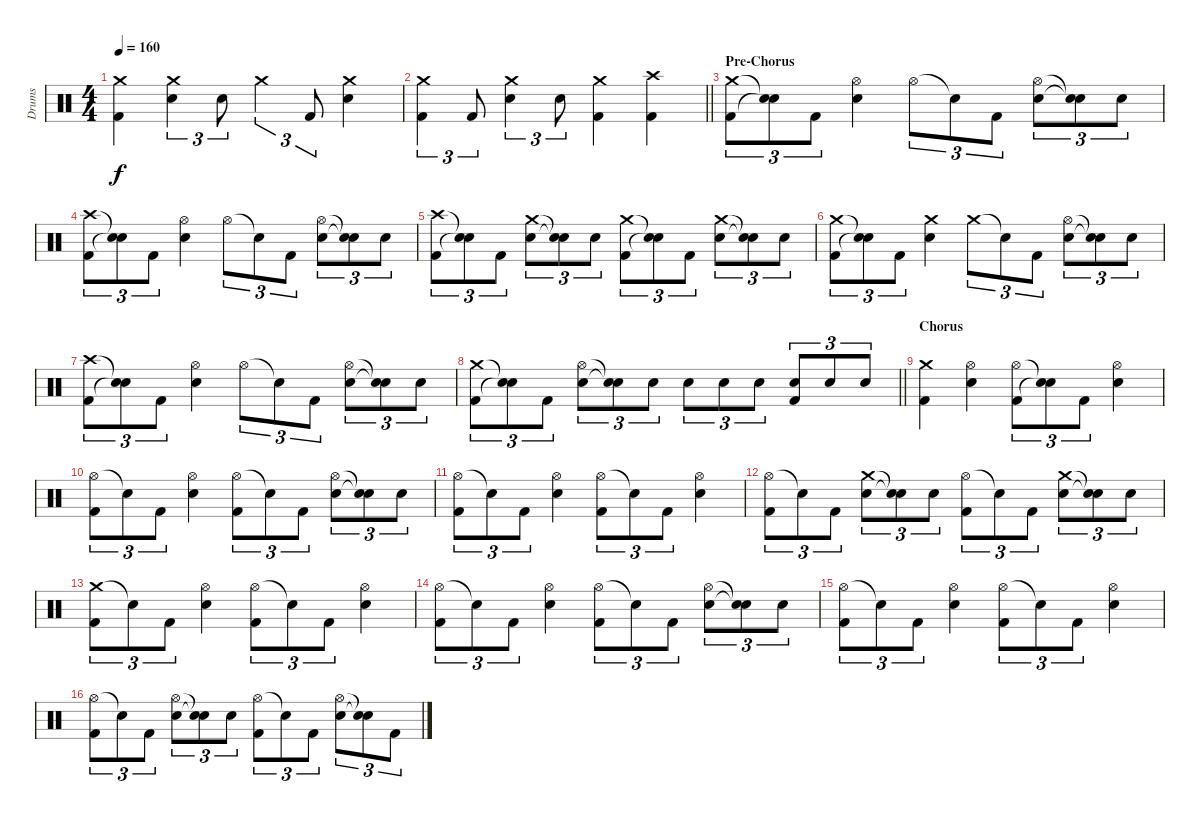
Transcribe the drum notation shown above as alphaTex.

\track ("Drums" "Drums") {instrument percussion}
\staff {score}
\articulation defaults
\ts (4 4)
\tempo 160
\clef neutral
\ks c
("Crash medium (hit)" "Kick (hit) 2").4{dy f} ("Crash medium (hit)" "Electric Snare (hit)").4{tu (3 2)} "Electric Snare (hit)".8{tu (3 2)} "Crash medium (hit)".4{tu (3 2)} "Kick (hit) 2".8{tu (3 2)} ("Crash medium (hit)" "Electric Snare (hit)").4 |
\barLineRight lightlight
("Crash medium (hit)" "Kick (hit) 2").4{tu (3 2)} "Kick (hit) 2".8{tu (3 2)} ("Crash medium (hit)" "Electric Snare (hit)").4{tu (3 2)} "Electric Snare (hit)".8{tu (3 2)} ("Crash medium (hit)" "Kick (hit) 2").4 ("Crash high (hit)" "Kick (hit) 2").4 |
\section ("" "Pre-Chorus")
("Crash medium (hit)" "Kick (hit) 2").8{tu (3 2)} ("Snare (hit)"{t} "Snare (hit)"{t}).8{tu (3 2)} "Kick (hit) 2".8{tu (3 2)} ("Hi-Hat (open)" "Electric Snare (hit)").4 "Hi-Hat (open)".8{tu (3 2)} "Snare (hit)"{t}.8{tu (3 2)} "Kick (hit) 2".8{tu (3 2)} ("Hi-Hat (open)" "Electric Snare (hit)").8{tu (3 2)} ("Snare (hit)"{t} "Snare (hit)"{t}).8{tu (3 2)} "Electric Snare (hit)".8{tu (3 2)} |
("Crash high (hit)" "Kick (hit) 2").8{tu (3 2)} ("Snare (hit)"{t} "Snare (hit)"{t}).8{tu (3 2)} "Kick (hit) 2".8{tu (3 2)} ("Hi-Hat (open)" "Electric Snare (hit)").4 "Hi-Hat (open)".8{tu (3 2)} "Snare (hit)"{t}.8{tu (3 2)} "Kick (hit) 2".8{tu (3 2)} ("Hi-Hat (open)" "Electric Snare (hit)").8{tu (3 2)} ("Snare (hit)"{t} "Snare (hit)"{t}).8{tu (3 2)} "Electric Snare (hit)".8{tu (3 2)} |
("Crash high (hit)" "Kick (hit) 2").8{tu (3 2)} ("Snare (hit)"{t} "Snare (hit)"{t}).8{tu (3 2)} "Kick (hit) 2".8{tu (3 2)} ("Crash medium (hit)" "Electric Snare (hit)").8{tu (3 2)} ("Snare (hit)"{t} "Snare (hit)"{t}).8{tu (3 2)} "Electric Snare (hit)".8{tu (3 2)} ("Crash medium (hit)" "Kick (hit) 2").8{tu (3 2)} ("Snare (hit)"{t} "Snare (hit)"{t}).8{tu (3 2)} "Kick (hit) 2".8{tu (3 2)} ("Crash medium (hit)" "Electric Snare (hit)").8{tu (3 2)} ("Snare (hit)"{t} "Snare (hit)"{t}).8{tu (3 2)} "Electric Snare (hit)".8{tu (3 2)} |
("Crash medium (hit)" "Kick (hit) 2").8{tu (3 2)} ("Snare (hit)"{t} "Snare (hit)"{t}).8{tu (3 2)} "Kick (hit) 2".8{tu (3 2)} ("Crash medium (hit)" "Electric Snare (hit)").4 "Crash medium (hit)".8{tu (3 2)} "Snare (hit)"{t}.8{tu (3 2)} "Kick (hit) 2".8{tu (3 2)} ("Hi-Hat (open)" "Electric Snare (hit)").8{tu (3 2)} ("Snare (hit)"{t} "Snare (hit)"{t}).8{tu (3 2)} "Electric Snare (hit)".8{tu (3 2)} |
("Crash high (hit)" "Kick (hit) 2").8{tu (3 2)} ("Snare (hit)"{t} "Snare (hit)"{t}).8{tu (3 2)} "Kick (hit) 2".8{tu (3 2)} ("Hi-Hat (open)" "Electric Snare (hit)").4 "Hi-Hat (open)".8{tu (3 2)} "Snare (hit)"{t}.8{tu (3 2)} "Kick (hit) 2".8{tu (3 2)} ("Hi-Hat (open)" "Electric Snare (hit)").8{tu (3 2)} ("Snare (hit)"{t} "Snare (hit)"{t}).8{tu (3 2)} "Electric Snare (hit)".8{tu (3 2)} |
\barLineRight lightlight
("Crash medium (hit)" "Kick (hit) 2").8{tu (3 2)} ("Snare (hit)"{t} "Snare (hit)"{t}).8{tu (3 2)} "Kick (hit) 2".8{tu (3 2)} ("Hi-Hat (open)" "Electric Snare (hit)").8{tu (3 2)} ("Snare (hit)"{t} "Snare (hit)"{t}).8{tu (3 2)} "Electric Snare (hit)".8{tu (3 2)} "Electric Snare (hit)".8{tu (3 2)} "Electric Snare (hit)".8{tu (3 2)} "Electric Snare (hit)".8{tu (3 2)} ("Electric Snare (hit)" "Kick (hit) 2").8{tu (3 2)} "Electric Snare (hit)".8{tu (3 2)} "Electric Snare (hit)".8{tu (3 2)} |
\section ("" "Chorus")
("Crash medium (hit)" "Kick (hit) 2").4 ("Hi-Hat (open)" "Electric Snare (hit)").4 ("Hi-Hat (open)" "Kick (hit) 2").8{tu (3 2)} ("Snare (hit)"{t} "Snare (hit)"{t}).8{tu (3 2)} "Kick (hit) 2".8{tu (3 2)} ("Hi-Hat (open)" "Electric Snare (hit)").4 |
("Hi-Hat (open)" "Kick (hit) 2").8{tu (3 2)} "Snare (hit)"{t}.8{tu (3 2)} "Kick (hit) 2".8{tu (3 2)} ("Hi-Hat (open)" "Electric Snare (hit)").4 ("Hi-Hat (open)" "Kick (hit) 2").8{tu (3 2)} "Snare (hit)"{t}.8{tu (3 2)} "Kick (hit) 2".8{tu (3 2)} ("Hi-Hat (open)" "Electric Snare (hit)").8{tu (3 2)} ("Snare (hit)"{t} "Snare (hit)"{t}).8{tu (3 2)} "Electric Snare (hit)".8{tu (3 2)} |
("Hi-Hat (open)" "Kick (hit) 2").8{tu (3 2)} "Snare (hit)"{t}.8{tu (3 2)} "Kick (hit) 2".8{tu (3 2)} ("Hi-Hat (open)" "Electric Snare (hit)").4 ("Hi-Hat (open)" "Kick (hit) 2").8{tu (3 2)} "Snare (hit)"{t}.8{tu (3 2)} "Kick (hit) 2".8{tu (3 2)} ("Hi-Hat (open)" "Electric Snare (hit)").4 |
("Hi-Hat (open)" "Kick (hit) 2").8{tu (3 2)} "Snare (hit)"{t}.8{tu (3 2)} "Kick (hit) 2".8{tu (3 2)} ("Crash medium (hit)" "Electric Snare (hit)").8{tu (3 2)} ("Snare (hit)"{t} "Snare (hit)"{t}).8{tu (3 2)} "Electric Snare (hit)".8{tu (3 2)} ("Hi-Hat (open)" "Kick (hit) 2").8{tu (3 2)} "Snare (hit)"{t}.8{tu (3 2)} "Kick (hit) 2".8{tu (3 2)} ("Crash medium (hit)" "Electric Snare (hit)").8{tu (3 2)} ("Snare (hit)"{t} "Snare (hit)"{t}).8{tu (3 2)} "Electric Snare (hit)".8{tu (3 2)} |
("Crash medium (hit)" "Kick (hit) 2").8{tu (3 2)} "Snare (hit)"{t}.8{tu (3 2)} "Kick (hit) 2".8{tu (3 2)} ("Hi-Hat (open)" "Electric Snare (hit)").4 ("Hi-Hat (open)" "Kick (hit) 2").8{tu (3 2)} "Snare (hit)"{t}.8{tu (3 2)} "Kick (hit) 2".8{tu (3 2)} ("Hi-Hat (open)" "Electric Snare (hit)").4 |
("Hi-Hat (open)" "Kick (hit) 2").8{tu (3 2)} "Snare (hit)"{t}.8{tu (3 2)} "Kick (hit) 2".8{tu (3 2)} ("Hi-Hat (open)" "Electric Snare (hit)").4 ("Hi-Hat (open)" "Kick (hit) 2").8{tu (3 2)} "Snare (hit)"{t}.8{tu (3 2)} "Kick (hit) 2".8{tu (3 2)} ("Hi-Hat (open)" "Electric Snare (hit)").8{tu (3 2)} ("Snare (hit)"{t} "Snare (hit)"{t}).8{tu (3 2)} "Electric Snare (hit)".8{tu (3 2)} |
("Hi-Hat (open)" "Kick (hit) 2").8{tu (3 2)} "Snare (hit)"{t}.8{tu (3 2)} "Kick (hit) 2".8{tu (3 2)} ("Hi-Hat (open)" "Electric Snare (hit)").4 ("Hi-Hat (open)" "Kick (hit) 2").8{tu (3 2)} "Snare (hit)"{t}.8{tu (3 2)} "Kick (hit) 2".8{tu (3 2)} ("Hi-Hat (open)" "Electric Snare (hit)").4 |
("Hi-Hat (open)" "Kick (hit) 2").8{tu (3 2)} "Snare (hit)"{t}.8{tu (3 2)} "Kick (hit) 2".8{tu (3 2)} ("Hi-Hat (open)" "Electric Snare (hit)").8{tu (3 2)} ("Snare (hit)"{t} "Snare (hit)"{t}).8{tu (3 2)} "Electric Snare (hit)".8{tu (3 2)} ("Hi-Hat (open)" "Kick (hit) 2").8{tu (3 2)} "Snare (hit)"{t}.8{tu (3 2)} "Kick (hit) 2".8{tu (3 2)} ("Hi-Hat (open)" "Electric Snare (hit)").8{tu (3 2)} ("Snare (hit)"{t} "Snare (hit)"{t}).8{tu (3 2)} "Kick (hit) 2".8{tu (3 2)}
